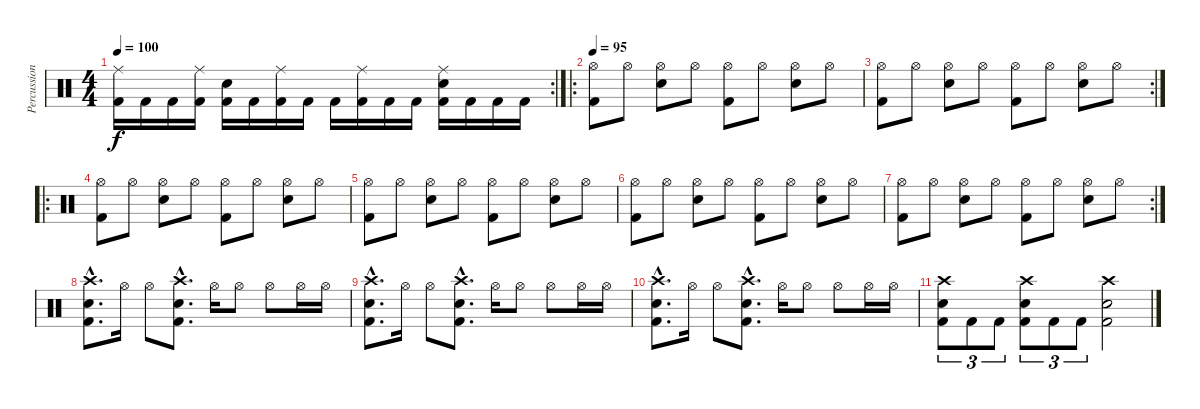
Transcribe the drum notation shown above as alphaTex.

\track ("Percussion" "Percussion") {instrument percussion}
\staff {score}
\articulation defaults
\rc 2
\ts (4 4)
\tempo 100
\clef neutral
\ks c
("Ride (middle)" "Kick (hit) 2").16{dy f} "Kick (hit) 2".16 "Kick (hit) 2".16 ("Ride (middle)" "Kick (hit) 2").16 ("Electric Snare (hit)" "Kick (hit) 2").16 "Kick (hit) 2".16 ("Ride (middle)" "Kick (hit) 2").16 "Kick (hit) 2".16 "Kick (hit) 2".16 ("Ride (middle)" "Kick (hit) 2").16 "Kick (hit) 2".16 "Kick (hit) 2".16 ("Ride (middle)" "Electric Snare (hit)" "Kick (hit) 2").16 "Kick (hit) 2".16 "Kick (hit) 2".16 "Kick (hit) 2".16 |
\ro
\tempo 95
("Hi-Hat (open)" "Kick (hit) 2").8 "Hi-Hat (open)".8 ("Hi-Hat (open)" "Electric Snare (hit)").8 "Hi-Hat (open)".8 ("Hi-Hat (open)" "Kick (hit) 2").8 "Hi-Hat (open)".8 ("Hi-Hat (open)" "Electric Snare (hit)").8 "Hi-Hat (open)".8 |
\rc 2
("Hi-Hat (open)" "Kick (hit) 2").8 "Hi-Hat (open)".8 ("Hi-Hat (open)" "Electric Snare (hit)").8 "Hi-Hat (open)".8 ("Hi-Hat (open)" "Kick (hit) 2").8 "Hi-Hat (open)".8 ("Hi-Hat (open)" "Electric Snare (hit)").8 "Hi-Hat (open)".8 |
\ro
("Hi-Hat (open)" "Kick (hit) 2").8 "Hi-Hat (open)".8 ("Hi-Hat (open)" "Electric Snare (hit)").8 "Hi-Hat (open)".8 ("Hi-Hat (open)" "Kick (hit) 2").8 "Hi-Hat (open)".8 ("Hi-Hat (open)" "Electric Snare (hit)").8 "Hi-Hat (open)".8 |
("Hi-Hat (open)" "Kick (hit) 2").8 "Hi-Hat (open)".8 ("Hi-Hat (open)" "Electric Snare (hit)").8 "Hi-Hat (open)".8 ("Hi-Hat (open)" "Kick (hit) 2").8 "Hi-Hat (open)".8 ("Hi-Hat (open)" "Electric Snare (hit)").8 "Hi-Hat (open)".8 |
("Hi-Hat (open)" "Kick (hit) 2").8 "Hi-Hat (open)".8 ("Hi-Hat (open)" "Electric Snare (hit)").8 "Hi-Hat (open)".8 ("Hi-Hat (open)" "Kick (hit) 2").8 "Hi-Hat (open)".8 ("Hi-Hat (open)" "Electric Snare (hit)").8 "Hi-Hat (open)".8 |
\rc 2
("Hi-Hat (open)" "Kick (hit) 2").8 "Hi-Hat (open)".8 ("Hi-Hat (open)" "Electric Snare (hit)").8 "Hi-Hat (open)".8 ("Hi-Hat (open)" "Kick (hit) 2").8 "Hi-Hat (open)".8 ("Hi-Hat (open)" "Electric Snare (hit)").8 "Hi-Hat (open)".8 |
("Crash high (hit)"{hac} "Electric Snare (hit)"{hac} "Kick (hit) 2"{hac}).8{d} "Hi-Hat (open)".16 "Hi-Hat (open)".8 ("Crash high (hit)"{hac} "Electric Snare (hit)"{hac} "Kick (hit) 2"{hac}).8{d} "Hi-Hat (open)".16 "Hi-Hat (open)".8 "Hi-Hat (open)".8 "Hi-Hat (open)".16 "Hi-Hat (open)".16 |
("Crash high (hit)"{hac} "Electric Snare (hit)"{hac} "Kick (hit) 2"{hac}).8{d} "Hi-Hat (open)".16 "Hi-Hat (open)".8 ("Crash high (hit)"{hac} "Electric Snare (hit)"{hac} "Kick (hit) 2"{hac}).8{d} "Hi-Hat (open)".16 "Hi-Hat (open)".8 "Hi-Hat (open)".8 "Hi-Hat (open)".16 "Hi-Hat (open)".16 |
("Crash high (hit)"{hac} "Electric Snare (hit)"{hac} "Kick (hit) 2"{hac}).8{d} "Hi-Hat (open)".16 "Hi-Hat (open)".8 ("Crash high (hit)"{hac} "Electric Snare (hit)"{hac} "Kick (hit) 2"{hac}).8{d} "Hi-Hat (open)".16 "Hi-Hat (open)".8 "Hi-Hat (open)".8 "Hi-Hat (open)".16 "Hi-Hat (open)".16 |
("Crash high (hit)" "Electric Snare (hit)" "Kick (hit) 2").8{tu (3 2)} "Kick (hit) 2".8{tu (3 2)} "Kick (hit) 2".8{tu (3 2)} ("Crash high (hit)" "Electric Snare (hit)" "Kick (hit) 2").8{tu (3 2)} "Kick (hit) 2".8{tu (3 2)} "Kick (hit) 2".8{tu (3 2)} ("Crash high (hit)" "Electric Snare (hit)" "Kick (hit) 2").2
